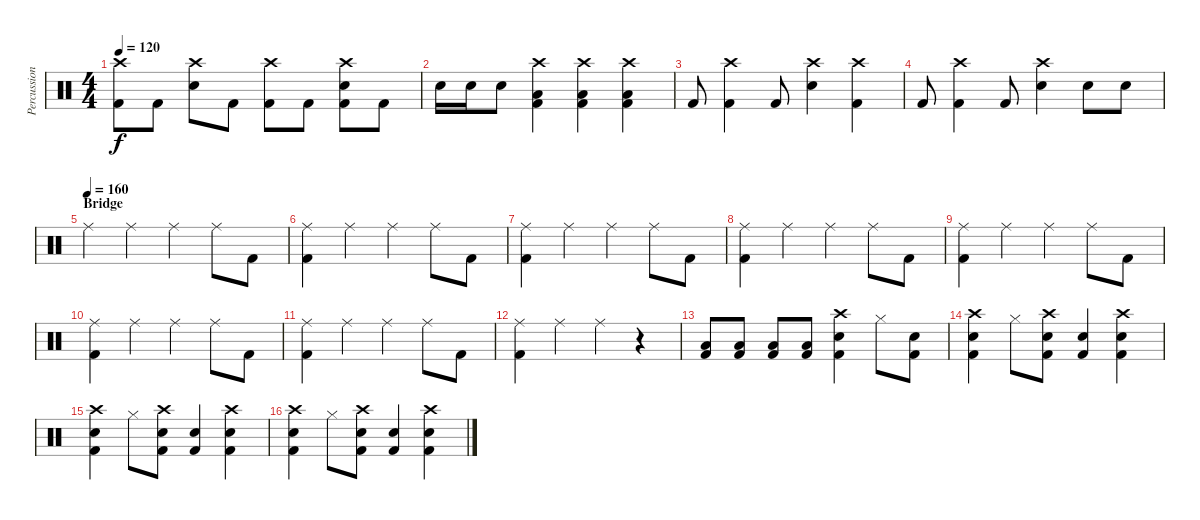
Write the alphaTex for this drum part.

\track ("Percussion" "Percussion") {instrument percussion}
\staff {score}
\articulation defaults
\ts (4 4)
\tempo 120
\clef neutral
\ks c
("Crash high (hit)" "Kick (hit) 2").8{dy f} "Kick (hit) 2".8 ("Crash high (hit)" "Electric Snare (hit)").8 "Kick (hit) 2".8 ("Crash high (hit)" "Kick (hit) 2").8 "Kick (hit) 2".8 ("Crash high (hit)" "Electric Snare (hit)" "Kick (hit) 2").8 "Kick (hit) 2".8 |
"Electric Snare (hit)".16 "Electric Snare (hit)".16 "Electric Snare (hit)".8 ("Crash high (hit)" "Low Floor Tom (hit)" "Kick (hit) 2").4 ("Crash high (hit)" "Low Floor Tom (hit)" "Kick (hit) 2").4 ("Crash high (hit)" "Low Floor Tom (hit)" "Kick (hit) 2").4 |
"Kick (hit) 2".8 ("Crash high (hit)" "Kick (hit) 2").4 "Kick (hit) 2".8 ("Crash high (hit)" "Electric Snare (hit)").4 ("Crash high (hit)" "Kick (hit) 2").4 |
"Kick (hit) 2".8 ("Crash high (hit)" "Kick (hit) 2").4 "Kick (hit) 2".8 ("Crash high (hit)" "Electric Snare (hit)").4 "Electric Snare (hit)".8 "Electric Snare (hit)".8 |
\section ("" "Bridge")
\tempo (160)
"Ride (middle)".4 "Ride (middle)".4 "Ride (middle)".4 "Ride (middle)".8 "Kick (hit) 2".8 |
("Ride (middle)" "Kick (hit) 2").4 "Ride (middle)".4 "Ride (middle)".4 "Ride (middle)".8 "Kick (hit) 2".8 |
("Ride (middle)" "Kick (hit) 2").4 "Ride (middle)".4 "Ride (middle)".4 "Ride (middle)".8 "Kick (hit) 2".8 |
("Ride (middle)" "Kick (hit) 2").4 "Ride (middle)".4 "Ride (middle)".4 "Ride (middle)".8 "Kick (hit) 2".8 |
("Ride (middle)" "Kick (hit) 2").4 "Ride (middle)".4 "Ride (middle)".4 "Ride (middle)".8 "Kick (hit) 2".8 |
("Ride (middle)" "Kick (hit) 2").4 "Ride (middle)".4 "Ride (middle)".4 "Ride (middle)".8 "Kick (hit) 2".8 |
("Ride (middle)" "Kick (hit) 2").4 "Ride (middle)".4 "Ride (middle)".4 "Ride (middle)".8 "Kick (hit) 2".8 |
("Ride (middle)" "Kick (hit) 2").4 "Ride (middle)".4 "Ride (middle)".4 r.4 |
("Low Floor Tom (hit)" "Kick (hit) 2").8 ("Low Floor Tom (hit)" "Kick (hit) 2").8 ("Low Floor Tom (hit)" "Kick (hit) 2").8 ("Low Floor Tom (hit)" "Kick (hit) 2").8 ("Crash high (hit)" "Electric Snare (hit)" "Kick (hit) 2").4 "Hi-Hat (closed)".8 ("Electric Snare (hit)" "Kick (hit) 2").8 |
("Crash high (hit)" "Electric Snare (hit)" "Kick (hit) 2").4 "Hi-Hat (closed)".8 ("Crash high (hit)" "Electric Snare (hit)" "Kick (hit) 2").8 ("Electric Snare (hit)" "Kick (hit) 2").4 ("Crash high (hit)" "Electric Snare (hit)" "Kick (hit) 2").4 |
("Crash high (hit)" "Electric Snare (hit)" "Kick (hit) 2").4 "Hi-Hat (closed)".8 ("Crash high (hit)" "Electric Snare (hit)" "Kick (hit) 2").8 ("Electric Snare (hit)" "Kick (hit) 2").4 ("Crash high (hit)" "Electric Snare (hit)" "Kick (hit) 2").4 |
("Crash high (hit)" "Electric Snare (hit)" "Kick (hit) 2").4 "Hi-Hat (closed)".8 ("Crash high (hit)" "Electric Snare (hit)" "Kick (hit) 2").8 ("Electric Snare (hit)" "Kick (hit) 2").4 ("Crash high (hit)" "Electric Snare (hit)" "Kick (hit) 2").4
